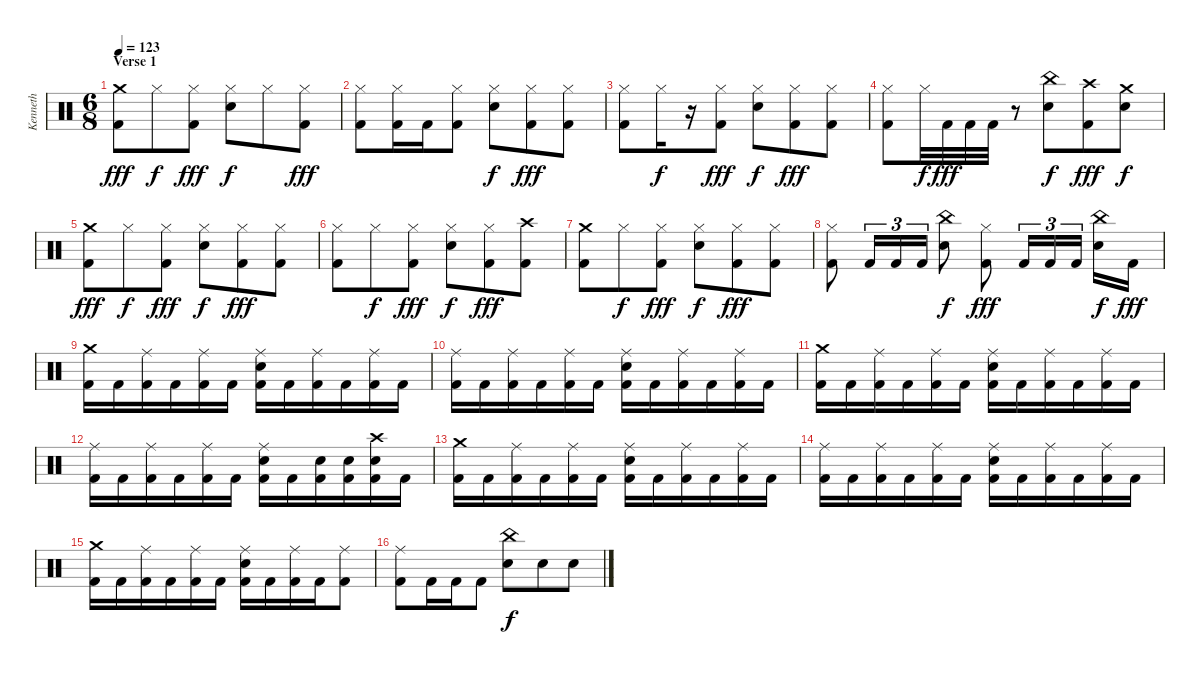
\track ("Kenneth" "Kenneth") {instrument percussion}
\staff {score}
\articulation defaults
\ts (6 8)
\section ("" "Verse 1")
\tempo 123
\clef neutral
\ks c
("Crash medium (hit)" "Kick (hit) 2").8{dy fff} "Hi-Hat (closed)".8{dy f} ("Hi-Hat (closed)" "Kick (hit) 2").8{dy fff} ("Hi-Hat (closed)" "Snare (hit) 2").8{dy f} "Hi-Hat (closed)".8 ("Hi-Hat (closed)" "Kick (hit) 2").8{dy fff} |
("Hi-Hat (closed)" "Kick (hit) 2").8 ("Hi-Hat (closed)" "Kick (hit) 2").16 "Kick (hit) 2".16 ("Hi-Hat (closed)" "Kick (hit) 2").8 ("Hi-Hat (closed)" "Snare (hit) 2").8{dy f} ("Hi-Hat (closed)" "Kick (hit) 2").8{dy fff} ("Hi-Hat (closed)" "Kick (hit) 2").8 |
("Hi-Hat (closed)" "Kick (hit) 2").8 "Hi-Hat (closed)".16{dy f} r.16 ("Hi-Hat (closed)" "Kick (hit) 2").8{dy fff} ("Hi-Hat (closed)" "Snare (hit) 2").8{dy f} ("Hi-Hat (closed)" "Kick (hit) 2").8{dy fff} ("Hi-Hat (closed)" "Kick (hit) 2").8 |
("Hi-Hat (closed)" "Kick (hit) 2").8 "Hi-Hat (closed)".32{dy f} "Kick (hit) 2".32{dy fff} "Kick (hit) 2".32 "Kick (hit) 2".32 r.8 ("China (hit)" "Snare (hit) 2").8{dy f} ("Crash high (hit)" "Kick (hit) 2").8{dy fff} ("Crash medium (hit)" "Snare (hit) 2").8{dy f} |
("Crash medium (hit)" "Kick (hit) 2").8{dy fff} "Hi-Hat (closed)".8{dy f} ("Hi-Hat (closed)" "Kick (hit) 2").8{dy fff} ("Hi-Hat (closed)" "Snare (hit) 2").8{dy f} ("Hi-Hat (closed)" "Kick (hit) 2").8{dy fff} ("Hi-Hat (closed)" "Kick (hit) 2").8 |
("Hi-Hat (closed)" "Kick (hit) 2").8 "Hi-Hat (closed)".8{dy f} ("Hi-Hat (closed)" "Kick (hit) 2").8{dy fff} ("Hi-Hat (closed)" "Snare (hit) 2").8{dy f} ("Hi-Hat (closed)" "Kick (hit) 2").8{dy fff} ("Crash high (hit)" "Kick (hit) 2").8 |
("Crash medium (hit)" "Kick (hit) 2").8 "Hi-Hat (closed)".8{dy f} ("Hi-Hat (closed)" "Kick (hit) 2").8{dy fff} ("Hi-Hat (closed)" "Snare (hit) 2").8{dy f} ("Hi-Hat (closed)" "Kick (hit) 2").8{dy fff} ("Hi-Hat (closed)" "Kick (hit) 2").8 |
("Hi-Hat (closed)" "Kick (hit) 2").8 "Kick (hit) 2".16{tu (3 2)} "Kick (hit) 2".16{tu (3 2)} "Kick (hit) 2".16{tu (3 2)} ("China (hit)" "Snare (hit) 2").8{dy f} ("Hi-Hat (closed)" "Kick (hit) 2").8{dy fff} "Kick (hit) 2".16{tu (3 2)} "Kick (hit) 2".16{tu (3 2)} "Kick (hit) 2".16{tu (3 2)} ("China (hit)" "Snare (hit) 2").16{dy f} "Kick (hit) 2".16{dy fff} |
("Crash medium (hit)" "Kick (hit) 2").16 "Kick (hit) 2".16 ("Ride (middle)" "Kick (hit) 2").16 "Kick (hit) 2".16 ("Ride (middle)" "Kick (hit) 2").16 "Kick (hit) 2".16 ("Ride (middle)" "Snare (hit) 2" "Kick (hit) 2").16 "Kick (hit) 2".16 ("Ride (middle)" "Kick (hit) 2").16 "Kick (hit) 2".16 ("Ride (middle)" "Kick (hit) 2").16 "Kick (hit) 2".16 |
("Ride (middle)" "Kick (hit) 2").16 "Kick (hit) 2".16 ("Ride (middle)" "Kick (hit) 2").16 "Kick (hit) 2".16 ("Ride (middle)" "Kick (hit) 2").16 "Kick (hit) 2".16 ("Ride (middle)" "Snare (hit) 2" "Kick (hit) 2").16 "Kick (hit) 2".16 ("Ride (middle)" "Kick (hit) 2").16 "Kick (hit) 2".16 ("Ride (middle)" "Kick (hit) 2").16 "Kick (hit) 2".16 |
("Crash medium (hit)" "Kick (hit) 2").16 "Kick (hit) 2".16 ("Ride (middle)" "Kick (hit) 2").16 "Kick (hit) 2".16 ("Ride (middle)" "Kick (hit) 2").16 "Kick (hit) 2".16 ("Ride (middle)" "Snare (hit) 2" "Kick (hit) 2").16 "Kick (hit) 2".16 ("Ride (middle)" "Kick (hit) 2").16 "Kick (hit) 2".16 ("Ride (middle)" "Kick (hit) 2").16 "Kick (hit) 2".16 |
("Ride (middle)" "Kick (hit) 2").16 "Kick (hit) 2".16 ("Ride (middle)" "Kick (hit) 2").16 "Kick (hit) 2".16 ("Ride (middle)" "Kick (hit) 2").16 "Kick (hit) 2".16 ("Ride (middle)" "Snare (hit) 2" "Kick (hit) 2").16 "Kick (hit) 2".16 ("Snare (hit) 2" "Kick (hit) 2").16 ("Snare (hit) 2" "Kick (hit) 2").16 ("Crash high (hit)" "Snare (hit) 2" "Kick (hit) 2").16 "Kick (hit) 2".16 |
("Crash medium (hit)" "Kick (hit) 2").16 "Kick (hit) 2".16 ("Ride (middle)" "Kick (hit) 2").16 "Kick (hit) 2".16 ("Ride (middle)" "Kick (hit) 2").16 "Kick (hit) 2".16 ("Ride (middle)" "Snare (hit) 2" "Kick (hit) 2").16 "Kick (hit) 2".16 ("Ride (middle)" "Kick (hit) 2").16 "Kick (hit) 2".16 ("Ride (middle)" "Kick (hit) 2").16 "Kick (hit) 2".16 |
("Ride (middle)" "Kick (hit) 2").16 "Kick (hit) 2".16 ("Ride (middle)" "Kick (hit) 2").16 "Kick (hit) 2".16 ("Ride (middle)" "Kick (hit) 2").16 "Kick (hit) 2".16 ("Ride (middle)" "Snare (hit) 2" "Kick (hit) 2").16 "Kick (hit) 2".16 ("Ride (middle)" "Kick (hit) 2").16 "Kick (hit) 2".16 ("Ride (middle)" "Kick (hit) 2").16 "Kick (hit) 2".16 |
("Crash medium (hit)" "Kick (hit) 2").16 "Kick (hit) 2".16 ("Ride (middle)" "Kick (hit) 2").16 "Kick (hit) 2".16 ("Ride (middle)" "Kick (hit) 2").16 "Kick (hit) 2".16 ("Ride (middle)" "Snare (hit) 2" "Kick (hit) 2").16 "Kick (hit) 2".16 ("Ride (middle)" "Kick (hit) 2").16 "Kick (hit) 2".16 ("Ride (middle)" "Kick (hit) 2").8 |
("Ride (middle)" "Kick (hit) 2").8 "Kick (hit) 2".16 "Kick (hit) 2".16 "Kick (hit) 2".8 ("China (hit)" "Snare (hit) 2").8{dy f} "Snare (hit) 2".8 "Snare (hit) 2".8
